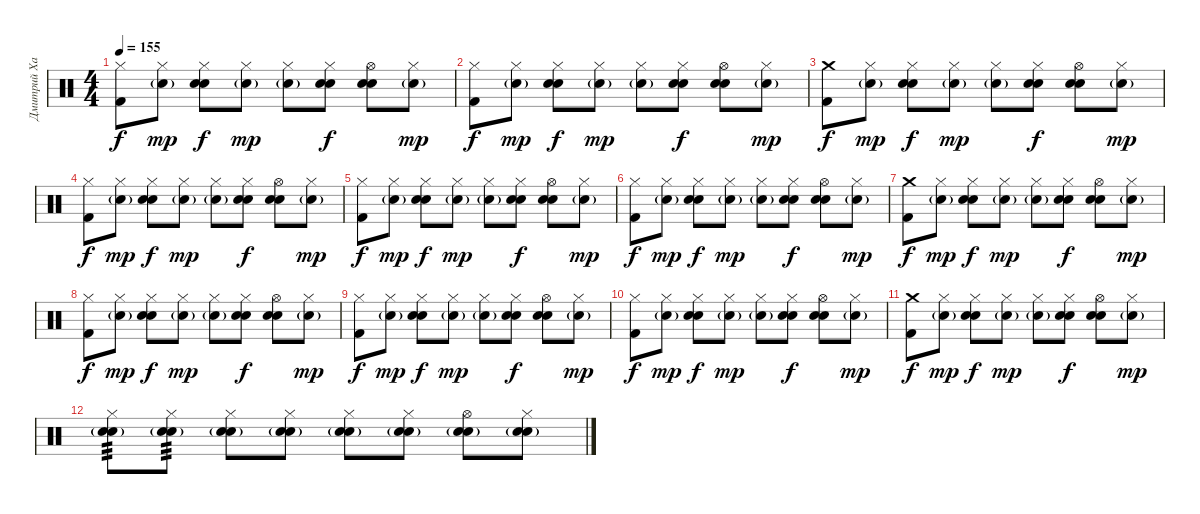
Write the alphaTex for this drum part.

\track ("Дмитрий Хакимов" "Дмитрий Ха") {instrument percussion}
\staff {score}
\articulation defaults
\ts (4 4)
\tempo 155
\clef neutral
\ks c
("Hi-Hat (closed)" "Kick (hit) 2").8{dy f} ("Hi-Hat (closed)" "Electric Snare (hit)"{g}).8{dy mp} ("Hi-Hat (closed)" "Electric Snare (hit)" "Hand Clap (hit)").8{dy f} ("Hi-Hat (closed)" "Electric Snare (hit)"{g}).8{dy mp} ("Hi-Hat (closed)" "Electric Snare (hit)"{g}).8 ("Hi-Hat (closed)" "Electric Snare (hit)" "Hand Clap (hit)").8{dy f} ("Hi-Hat (open)" "Electric Snare (hit)" "Hand Clap (hit)").8 ("Hi-Hat (closed)" "Electric Snare (hit)"{g}).8{dy mp} |
("Hi-Hat (closed)" "Kick (hit) 2").8{dy f} ("Hi-Hat (closed)" "Electric Snare (hit)"{g}).8{dy mp} ("Hi-Hat (closed)" "Electric Snare (hit)" "Hand Clap (hit)").8{dy f} ("Hi-Hat (closed)" "Electric Snare (hit)"{g}).8{dy mp} ("Hi-Hat (closed)" "Electric Snare (hit)"{g}).8 ("Hi-Hat (closed)" "Electric Snare (hit)" "Hand Clap (hit)").8{dy f} ("Hi-Hat (open)" "Electric Snare (hit)" "Hand Clap (hit)").8 ("Hi-Hat (closed)" "Electric Snare (hit)"{g}).8{dy mp} |
("Crash medium (hit)" "Kick (hit) 2").8{dy f} ("Hi-Hat (closed)" "Electric Snare (hit)"{g}).8{dy mp} ("Hi-Hat (closed)" "Electric Snare (hit)" "Hand Clap (hit)").8{dy f} ("Hi-Hat (closed)" "Electric Snare (hit)"{g}).8{dy mp} ("Hi-Hat (closed)" "Electric Snare (hit)"{g}).8 ("Hi-Hat (closed)" "Electric Snare (hit)" "Hand Clap (hit)").8{dy f} ("Hi-Hat (open)" "Electric Snare (hit)" "Hand Clap (hit)").8 ("Hi-Hat (closed)" "Electric Snare (hit)"{g}).8{dy mp} |
("Hi-Hat (closed)" "Kick (hit) 2").8{dy f} ("Hi-Hat (closed)" "Electric Snare (hit)"{g}).8{dy mp} ("Hi-Hat (closed)" "Electric Snare (hit)" "Hand Clap (hit)").8{dy f} ("Hi-Hat (closed)" "Electric Snare (hit)"{g}).8{dy mp} ("Hi-Hat (closed)" "Electric Snare (hit)"{g}).8 ("Hi-Hat (closed)" "Electric Snare (hit)" "Hand Clap (hit)").8{dy f} ("Hi-Hat (open)" "Electric Snare (hit)" "Hand Clap (hit)").8 ("Hi-Hat (closed)" "Electric Snare (hit)"{g}).8{dy mp} |
("Hi-Hat (closed)" "Kick (hit) 2").8{dy f} ("Hi-Hat (closed)" "Electric Snare (hit)"{g}).8{dy mp} ("Hi-Hat (closed)" "Electric Snare (hit)" "Hand Clap (hit)").8{dy f} ("Hi-Hat (closed)" "Electric Snare (hit)"{g}).8{dy mp} ("Hi-Hat (closed)" "Electric Snare (hit)"{g}).8 ("Hi-Hat (closed)" "Electric Snare (hit)" "Hand Clap (hit)").8{dy f} ("Hi-Hat (open)" "Electric Snare (hit)" "Hand Clap (hit)").8 ("Hi-Hat (closed)" "Electric Snare (hit)"{g}).8{dy mp} |
("Hi-Hat (closed)" "Kick (hit) 2").8{dy f} ("Hi-Hat (closed)" "Electric Snare (hit)"{g}).8{dy mp} ("Hi-Hat (closed)" "Electric Snare (hit)" "Hand Clap (hit)").8{dy f} ("Hi-Hat (closed)" "Electric Snare (hit)"{g}).8{dy mp} ("Hi-Hat (closed)" "Electric Snare (hit)"{g}).8 ("Hi-Hat (closed)" "Electric Snare (hit)" "Hand Clap (hit)").8{dy f} ("Hi-Hat (open)" "Electric Snare (hit)" "Hand Clap (hit)").8 ("Hi-Hat (closed)" "Electric Snare (hit)"{g}).8{dy mp} |
("Crash medium (hit)" "Kick (hit) 2").8{dy f} ("Hi-Hat (closed)" "Electric Snare (hit)"{g}).8{dy mp} ("Hi-Hat (closed)" "Electric Snare (hit)" "Hand Clap (hit)").8{dy f} ("Hi-Hat (closed)" "Electric Snare (hit)"{g}).8{dy mp} ("Hi-Hat (closed)" "Electric Snare (hit)"{g}).8 ("Hi-Hat (closed)" "Electric Snare (hit)" "Hand Clap (hit)").8{dy f} ("Hi-Hat (open)" "Electric Snare (hit)" "Hand Clap (hit)").8 ("Hi-Hat (closed)" "Electric Snare (hit)"{g}).8{dy mp} |
("Hi-Hat (closed)" "Kick (hit) 2").8{dy f} ("Hi-Hat (closed)" "Electric Snare (hit)"{g}).8{dy mp} ("Hi-Hat (closed)" "Electric Snare (hit)" "Hand Clap (hit)").8{dy f} ("Hi-Hat (closed)" "Electric Snare (hit)"{g}).8{dy mp} ("Hi-Hat (closed)" "Electric Snare (hit)"{g}).8 ("Hi-Hat (closed)" "Electric Snare (hit)" "Hand Clap (hit)").8{dy f} ("Hi-Hat (open)" "Electric Snare (hit)" "Hand Clap (hit)").8 ("Hi-Hat (closed)" "Electric Snare (hit)"{g}).8{dy mp} |
("Hi-Hat (closed)" "Kick (hit) 2").8{dy f} ("Hi-Hat (closed)" "Electric Snare (hit)"{g}).8{dy mp} ("Hi-Hat (closed)" "Electric Snare (hit)" "Hand Clap (hit)").8{dy f} ("Hi-Hat (closed)" "Electric Snare (hit)"{g}).8{dy mp} ("Hi-Hat (closed)" "Electric Snare (hit)"{g}).8 ("Hi-Hat (closed)" "Electric Snare (hit)" "Hand Clap (hit)").8{dy f} ("Hi-Hat (open)" "Electric Snare (hit)" "Hand Clap (hit)").8 ("Hi-Hat (closed)" "Electric Snare (hit)"{g}).8{dy mp} |
("Hi-Hat (closed)" "Kick (hit) 2").8{dy f} ("Hi-Hat (closed)" "Electric Snare (hit)"{g}).8{dy mp} ("Hi-Hat (closed)" "Electric Snare (hit)" "Hand Clap (hit)").8{dy f} ("Hi-Hat (closed)" "Electric Snare (hit)"{g}).8{dy mp} ("Hi-Hat (closed)" "Electric Snare (hit)"{g}).8 ("Hi-Hat (closed)" "Electric Snare (hit)" "Hand Clap (hit)").8{dy f} ("Hi-Hat (open)" "Electric Snare (hit)" "Hand Clap (hit)").8 ("Hi-Hat (closed)" "Electric Snare (hit)"{g}).8{dy mp} |
("Crash medium (hit)" "Kick (hit) 2").8{dy f} ("Hi-Hat (closed)" "Electric Snare (hit)"{g}).8{dy mp} ("Hi-Hat (closed)" "Electric Snare (hit)" "Hand Clap (hit)").8{dy f} ("Hi-Hat (closed)" "Electric Snare (hit)"{g}).8{dy mp} ("Hi-Hat (closed)" "Electric Snare (hit)"{g}).8 ("Hi-Hat (closed)" "Electric Snare (hit)" "Hand Clap (hit)").8{dy f} ("Hi-Hat (open)" "Electric Snare (hit)" "Hand Clap (hit)").8 ("Hi-Hat (closed)" "Electric Snare (hit)"{g}).8{dy mp} |
("Hi-Hat (closed)" "Electric Snare (hit)"{g} "Snare (hit) 2").8{tp 3} ("Hi-Hat (closed)" "Electric Snare (hit)"{g} "Snare (hit) 2").8{tp 3} ("Hi-Hat (closed)" "Electric Snare (hit)"{g} "Snare (hit) 2").8 ("Hi-Hat (closed)" "Electric Snare (hit)"{g} "Snare (hit) 2").8 ("Hi-Hat (closed)" "Electric Snare (hit)"{g} "Snare (hit) 2").8 ("Hi-Hat (closed)" "Electric Snare (hit)"{g} "Snare (hit) 2").8 ("Hi-Hat (open)" "Electric Snare (hit)"{g} "Snare (hit) 2").8 ("Hi-Hat (closed)" "Electric Snare (hit)"{g} "Snare (hit) 2").8
